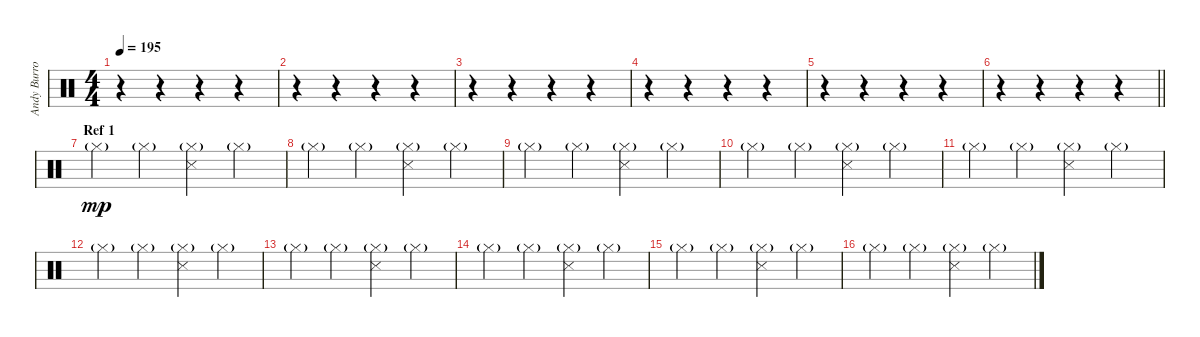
\track ("Andy Burrows (drums)" "Andy Burro") {instrument percussion}
\staff {score}
\articulation defaults
\ts (4 4)
\tempo 195
\clef neutral
\ks c
r.4{dy mp} r.4 r.4 r.4 |
r.4 r.4 r.4 r.4 |
r.4 r.4 r.4 r.4 |
r.4 r.4 r.4 r.4 |
r.4 r.4 r.4 r.4 |
\barLineRight lightlight
r.4 r.4 r.4 r.4 |
\section ("" "Ref 1")
"Hi-Hat (closed)"{g}.4 "Hi-Hat (closed)"{g}.4 ("Hi-Hat (closed)"{g} "Snare (side stick) 3").4 "Hi-Hat (closed)"{g}.4 |
"Hi-Hat (closed)"{g}.4 "Hi-Hat (closed)"{g}.4 ("Hi-Hat (closed)"{g} "Snare (side stick) 3").4 "Hi-Hat (closed)"{g}.4 |
"Hi-Hat (closed)"{g}.4 "Hi-Hat (closed)"{g}.4 ("Hi-Hat (closed)"{g} "Snare (side stick) 3").4 "Hi-Hat (closed)"{g}.4 |
"Hi-Hat (closed)"{g}.4 "Hi-Hat (closed)"{g}.4 ("Hi-Hat (closed)"{g} "Snare (side stick) 3").4 "Hi-Hat (closed)"{g}.4 |
"Hi-Hat (closed)"{g}.4 "Hi-Hat (closed)"{g}.4 ("Hi-Hat (closed)"{g} "Snare (side stick) 3").4 "Hi-Hat (closed)"{g}.4 |
"Hi-Hat (closed)"{g}.4 "Hi-Hat (closed)"{g}.4 ("Hi-Hat (closed)"{g} "Snare (side stick) 3").4 "Hi-Hat (closed)"{g}.4 |
"Hi-Hat (closed)"{g}.4 "Hi-Hat (closed)"{g}.4 ("Hi-Hat (closed)"{g} "Snare (side stick) 3").4 "Hi-Hat (closed)"{g}.4 |
"Hi-Hat (closed)"{g}.4 "Hi-Hat (closed)"{g}.4 ("Hi-Hat (closed)"{g} "Snare (side stick) 3").4 "Hi-Hat (closed)"{g}.4 |
"Hi-Hat (closed)"{g}.4 "Hi-Hat (closed)"{g}.4 ("Hi-Hat (closed)"{g} "Snare (side stick) 3").4 "Hi-Hat (closed)"{g}.4 |
"Hi-Hat (closed)"{g}.4 "Hi-Hat (closed)"{g}.4 ("Hi-Hat (closed)"{g} "Snare (side stick) 3").4 "Hi-Hat (closed)"{g}.4
